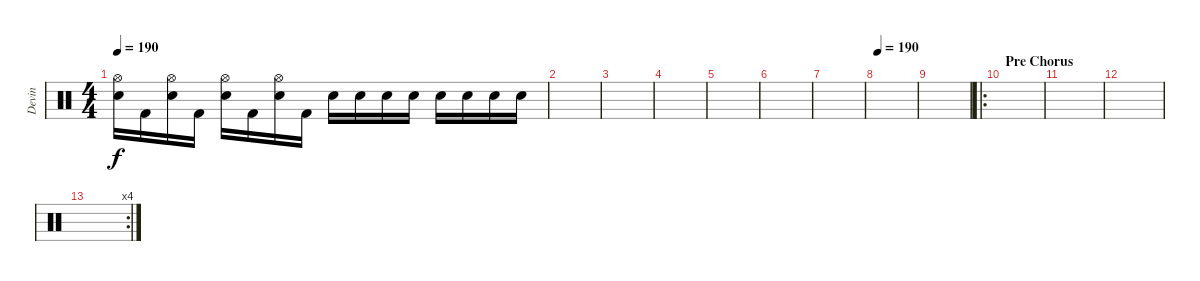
\track ("Devin" "Devin") {instrument percussion}
\staff {score}
\articulation defaults
\ts (4 4)
\tempo 190
\clef neutral
\ks c
("Hi-Hat (open)" "Electric Snare (hit)").16{dy f} "Kick (hit) 2".16 ("Hi-Hat (open)" "Electric Snare (hit)").16 "Kick (hit) 2".16 ("Hi-Hat (open)" "Electric Snare (hit)").16 "Kick (hit) 2".16 ("Hi-Hat (open)" "Electric Snare (hit)").16 "Kick (hit) 2".16 "Electric Snare (hit)".16 "Electric Snare (hit)".16 "Electric Snare (hit)".16 "Electric Snare (hit)".16 "Electric Snare (hit)".16 "Electric Snare (hit)".16 "Electric Snare (hit)".16 "Electric Snare (hit)".16 |
|
|
|
|
|
|
\tempo 190
|
|
\ro
\section ("" "Pre Chorus")
|
|
|
\rc 4
